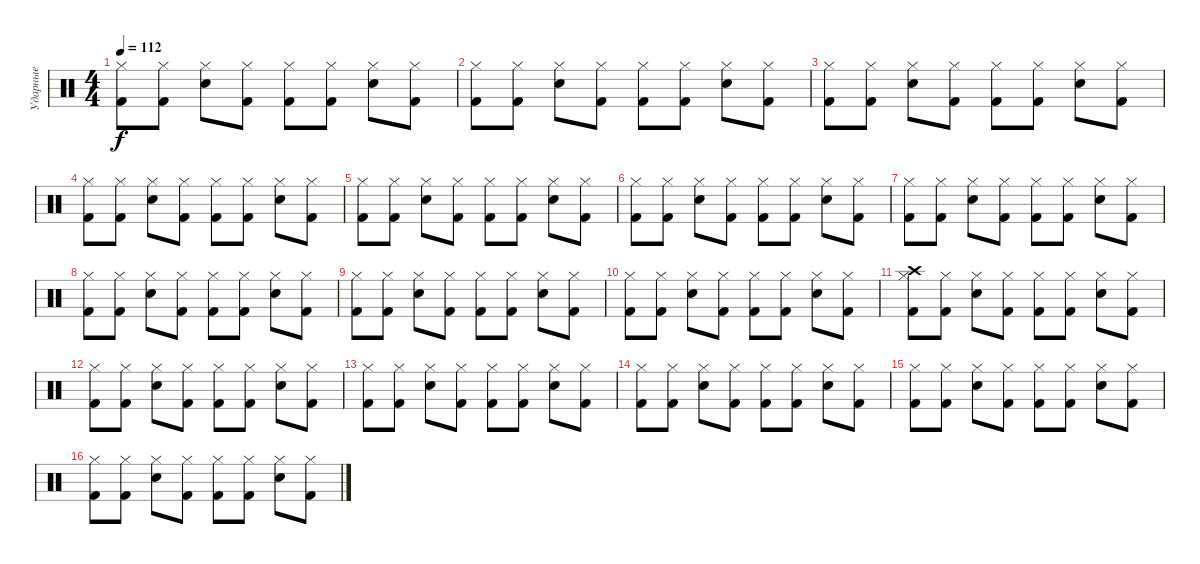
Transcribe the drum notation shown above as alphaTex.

\track ("Ударные" "Ударные") {instrument percussion}
\staff {score}
\articulation defaults
\ts (4 4)
\tempo 112
\clef neutral
\ks c
("Hi-Hat (closed)" "Kick (hit) 2").8{dy f} ("Hi-Hat (closed)" "Kick (hit) 2").8 ("Hi-Hat (closed)" "Snare (hit) 2").8 ("Hi-Hat (closed)" "Kick (hit) 2").8 ("Hi-Hat (closed)" "Kick (hit) 2").8 ("Hi-Hat (closed)" "Kick (hit) 2").8 ("Hi-Hat (closed)" "Snare (hit) 2").8 ("Hi-Hat (closed)" "Kick (hit) 2").8 |
("Hi-Hat (closed)" "Kick (hit) 2").8 ("Hi-Hat (closed)" "Kick (hit) 2").8 ("Hi-Hat (closed)" "Snare (hit) 2").8 ("Hi-Hat (closed)" "Kick (hit) 2").8 ("Hi-Hat (closed)" "Kick (hit) 2").8 ("Hi-Hat (closed)" "Kick (hit) 2").8 ("Hi-Hat (closed)" "Snare (hit) 2").8 ("Hi-Hat (closed)" "Kick (hit) 2").8 |
("Hi-Hat (closed)" "Kick (hit) 2").8 ("Hi-Hat (closed)" "Kick (hit) 2").8 ("Hi-Hat (closed)" "Snare (hit) 2").8 ("Hi-Hat (closed)" "Kick (hit) 2").8 ("Hi-Hat (closed)" "Kick (hit) 2").8 ("Hi-Hat (closed)" "Kick (hit) 2").8 ("Hi-Hat (closed)" "Snare (hit) 2").8 ("Hi-Hat (closed)" "Kick (hit) 2").8 |
("Hi-Hat (closed)" "Kick (hit) 2").8 ("Hi-Hat (closed)" "Kick (hit) 2").8 ("Hi-Hat (closed)" "Snare (hit) 2").8 ("Hi-Hat (closed)" "Kick (hit) 2").8 ("Hi-Hat (closed)" "Kick (hit) 2").8 ("Hi-Hat (closed)" "Kick (hit) 2").8 ("Hi-Hat (closed)" "Snare (hit) 2").8 ("Hi-Hat (closed)" "Kick (hit) 2").8 |
("Hi-Hat (closed)" "Kick (hit) 2").8 ("Hi-Hat (closed)" "Kick (hit) 2").8 ("Hi-Hat (closed)" "Snare (hit) 2").8 ("Hi-Hat (closed)" "Kick (hit) 2").8 ("Hi-Hat (closed)" "Kick (hit) 2").8 ("Hi-Hat (closed)" "Kick (hit) 2").8 ("Hi-Hat (closed)" "Snare (hit) 2").8 ("Hi-Hat (closed)" "Kick (hit) 2").8 |
("Hi-Hat (closed)" "Kick (hit) 2").8 ("Hi-Hat (closed)" "Kick (hit) 2").8 ("Hi-Hat (closed)" "Snare (hit) 2").8 ("Hi-Hat (closed)" "Kick (hit) 2").8 ("Hi-Hat (closed)" "Kick (hit) 2").8 ("Hi-Hat (closed)" "Kick (hit) 2").8 ("Hi-Hat (closed)" "Snare (hit) 2").8 ("Hi-Hat (closed)" "Kick (hit) 2").8 |
("Hi-Hat (closed)" "Kick (hit) 2").8 ("Hi-Hat (closed)" "Kick (hit) 2").8 ("Hi-Hat (closed)" "Snare (hit) 2").8 ("Hi-Hat (closed)" "Kick (hit) 2").8 ("Hi-Hat (closed)" "Kick (hit) 2").8 ("Hi-Hat (closed)" "Kick (hit) 2").8 ("Hi-Hat (closed)" "Snare (hit) 2").8 ("Hi-Hat (closed)" "Kick (hit) 2").8 |
("Hi-Hat (closed)" "Kick (hit) 2").8 ("Hi-Hat (closed)" "Kick (hit) 2").8 ("Hi-Hat (closed)" "Snare (hit) 2").8 ("Hi-Hat (closed)" "Kick (hit) 2").8 ("Hi-Hat (closed)" "Kick (hit) 2").8 ("Hi-Hat (closed)" "Kick (hit) 2").8 ("Hi-Hat (closed)" "Snare (hit) 2").8 ("Hi-Hat (closed)" "Kick (hit) 2").8 |
("Hi-Hat (closed)" "Kick (hit) 2").8 ("Hi-Hat (closed)" "Kick (hit) 2").8 ("Hi-Hat (closed)" "Snare (hit) 2").8 ("Hi-Hat (closed)" "Kick (hit) 2").8 ("Hi-Hat (closed)" "Kick (hit) 2").8 ("Hi-Hat (closed)" "Kick (hit) 2").8 ("Hi-Hat (closed)" "Snare (hit) 2").8 ("Hi-Hat (closed)" "Kick (hit) 2").8 |
("Hi-Hat (closed)" "Kick (hit) 2").8 ("Hi-Hat (closed)" "Kick (hit) 2").8 ("Hi-Hat (closed)" "Snare (hit) 2").8 ("Hi-Hat (closed)" "Kick (hit) 2").8 ("Hi-Hat (closed)" "Kick (hit) 2").8 ("Hi-Hat (closed)" "Kick (hit) 2").8 ("Hi-Hat (closed)" "Snare (hit) 2").8 ("Hi-Hat (closed)" "Kick (hit) 2").8 |
("Hi-Hat (closed)" "Kick (hit) 2" "Crash high (hit)").8 ("Hi-Hat (closed)" "Kick (hit) 2").8 ("Hi-Hat (closed)" "Snare (hit) 2").8 ("Hi-Hat (closed)" "Kick (hit) 2").8 ("Hi-Hat (closed)" "Kick (hit) 2").8 ("Hi-Hat (closed)" "Kick (hit) 2").8 ("Hi-Hat (closed)" "Snare (hit) 2").8 ("Hi-Hat (closed)" "Kick (hit) 2").8 |
("Hi-Hat (closed)" "Kick (hit) 2").8 ("Hi-Hat (closed)" "Kick (hit) 2").8 ("Hi-Hat (closed)" "Snare (hit) 2").8 ("Hi-Hat (closed)" "Kick (hit) 2").8 ("Hi-Hat (closed)" "Kick (hit) 2").8 ("Hi-Hat (closed)" "Kick (hit) 2").8 ("Hi-Hat (closed)" "Snare (hit) 2").8 ("Hi-Hat (closed)" "Kick (hit) 2").8 |
("Hi-Hat (closed)" "Kick (hit) 2").8 ("Hi-Hat (closed)" "Kick (hit) 2").8 ("Hi-Hat (closed)" "Snare (hit) 2").8 ("Hi-Hat (closed)" "Kick (hit) 2").8 ("Hi-Hat (closed)" "Kick (hit) 2").8 ("Hi-Hat (closed)" "Kick (hit) 2").8 ("Hi-Hat (closed)" "Snare (hit) 2").8 ("Hi-Hat (closed)" "Kick (hit) 2").8 |
("Hi-Hat (closed)" "Kick (hit) 2").8 ("Hi-Hat (closed)" "Kick (hit) 2").8 ("Hi-Hat (closed)" "Snare (hit) 2").8 ("Hi-Hat (closed)" "Kick (hit) 2").8 ("Hi-Hat (closed)" "Kick (hit) 2").8 ("Hi-Hat (closed)" "Kick (hit) 2").8 ("Hi-Hat (closed)" "Snare (hit) 2").8 ("Hi-Hat (closed)" "Kick (hit) 2").8 |
("Hi-Hat (closed)" "Kick (hit) 2").8 ("Hi-Hat (closed)" "Kick (hit) 2").8 ("Hi-Hat (closed)" "Snare (hit) 2").8 ("Hi-Hat (closed)" "Kick (hit) 2").8 ("Hi-Hat (closed)" "Kick (hit) 2").8 ("Hi-Hat (closed)" "Kick (hit) 2").8 ("Hi-Hat (closed)" "Snare (hit) 2").8 ("Hi-Hat (closed)" "Kick (hit) 2").8 |
("Hi-Hat (closed)" "Kick (hit) 2").8 ("Hi-Hat (closed)" "Kick (hit) 2").8 ("Hi-Hat (closed)" "Snare (hit) 2").8 ("Hi-Hat (closed)" "Kick (hit) 2").8 ("Hi-Hat (closed)" "Kick (hit) 2").8 ("Hi-Hat (closed)" "Kick (hit) 2").8 ("Hi-Hat (closed)" "Snare (hit) 2").8 ("Hi-Hat (closed)" "Kick (hit) 2").8
